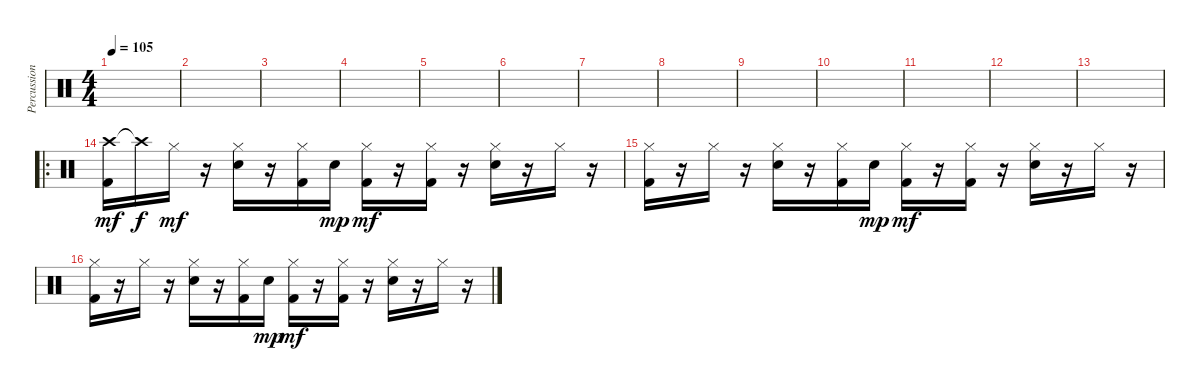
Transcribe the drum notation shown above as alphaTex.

\track ("Percussion" "Percussion") {instrument percussion}
\staff {score}
\articulation defaults
\ts (4 4)
\tempo 105
\clef neutral
\ks c
|
|
|
|
|
|
|
|
|
|
|
|
|
\ro
("Crash high (hit)" "Kick (hit) 2").16{dy mf volume 16} "Crash high (hit)"{t}.16{dy f} "Hi-Hat (closed)".16{dy mf} r.16 ("Hi-Hat (closed)" "Electric Snare (hit)").16 r.16 ("Hi-Hat (closed)" "Kick (hit) 2").16 "Electric Snare (hit)".16{dy mp} ("Hi-Hat (closed)" "Kick (hit) 2").16{dy mf} r.16 ("Hi-Hat (closed)" "Kick (hit) 2").16 r.16 ("Hi-Hat (closed)" "Electric Snare (hit)").16 r.16 "Hi-Hat (closed)".16 r.16 |
("Hi-Hat (closed)" "Kick (hit) 2").16 r.16 "Hi-Hat (closed)".16 r.16 ("Hi-Hat (closed)" "Electric Snare (hit)").16 r.16 ("Hi-Hat (closed)" "Kick (hit) 2").16 "Electric Snare (hit)".16{dy mp} ("Hi-Hat (closed)" "Kick (hit) 2").16{dy mf} r.16 ("Hi-Hat (closed)" "Kick (hit) 2").16 r.16 ("Hi-Hat (closed)" "Electric Snare (hit)").16 r.16 "Hi-Hat (closed)".16 r.16 |
("Hi-Hat (closed)" "Kick (hit) 2").16 r.16 "Hi-Hat (closed)".16 r.16 ("Hi-Hat (closed)" "Electric Snare (hit)").16 r.16 ("Hi-Hat (closed)" "Kick (hit) 2").16 "Electric Snare (hit)".16{dy mp} ("Hi-Hat (closed)" "Kick (hit) 2").16{dy mf} r.16 ("Hi-Hat (closed)" "Kick (hit) 2").16 r.16 ("Hi-Hat (closed)" "Electric Snare (hit)").16 r.16 "Hi-Hat (closed)".16 r.16
